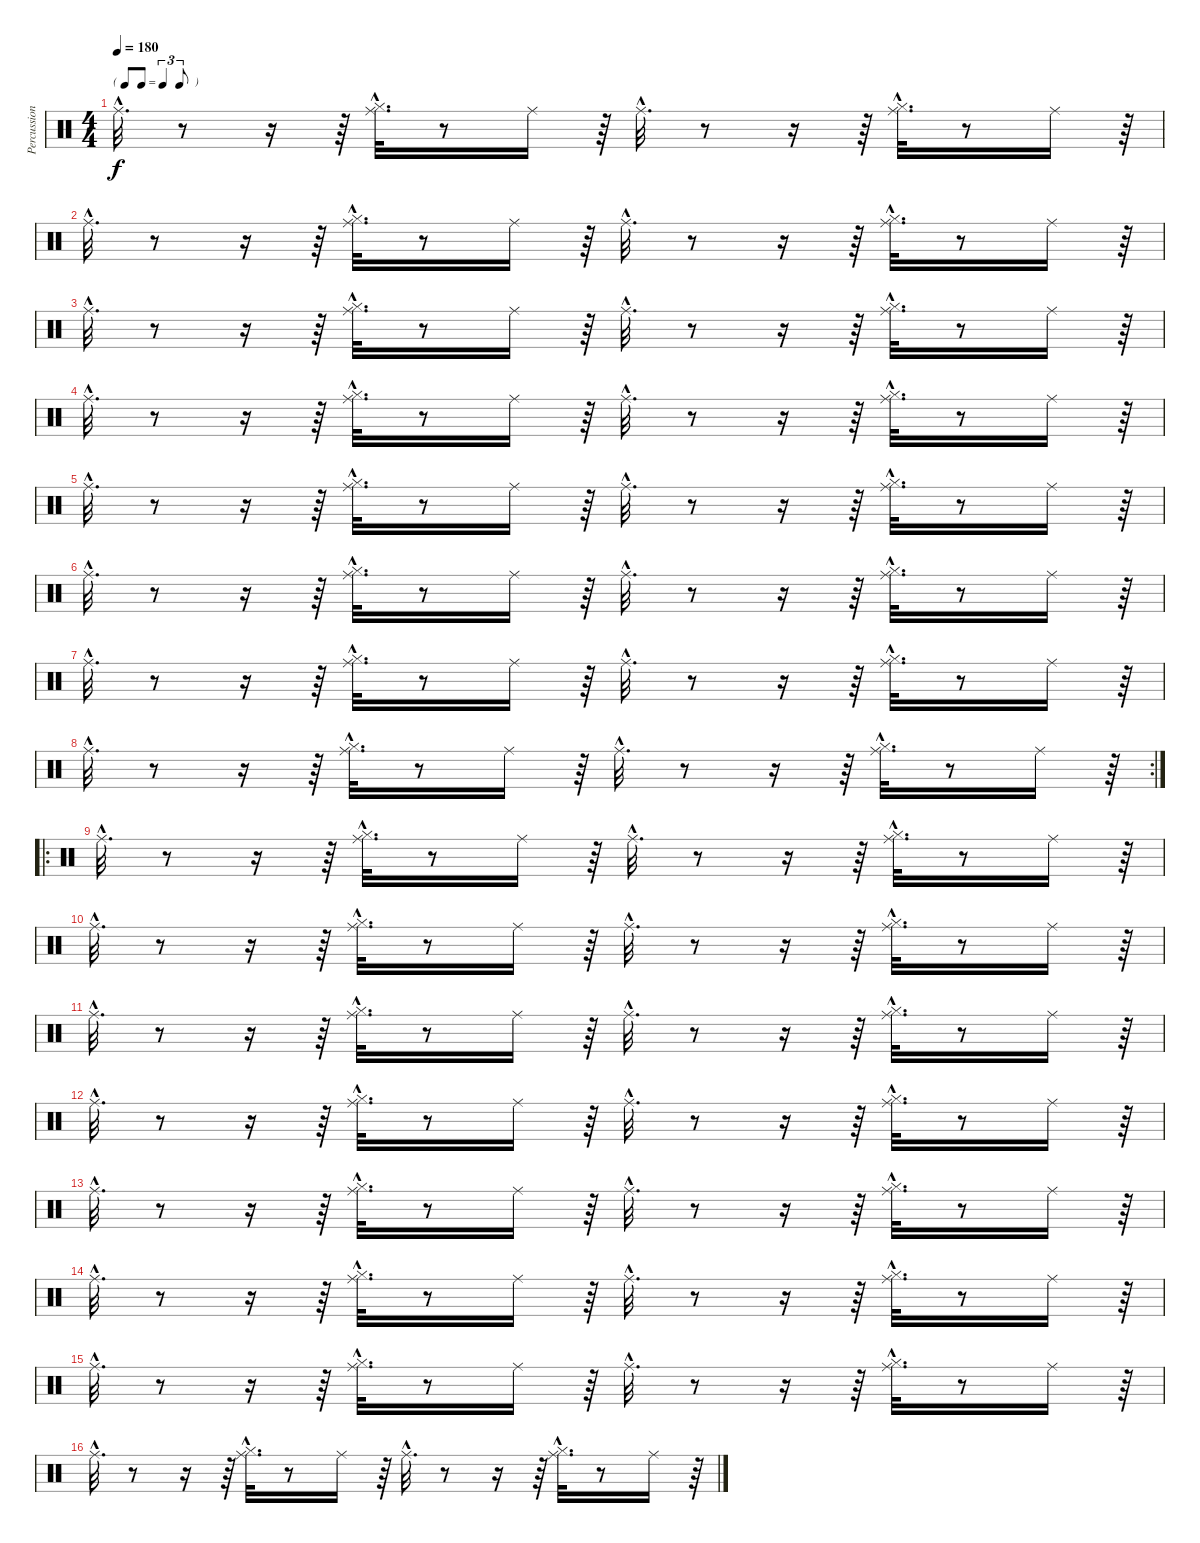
\track ("Percussions" "Percussion") {instrument percussion}
\staff {score}
\articulation defaults
\ts (4 4)
\tf triplet8th
\tempo 180
\clef neutral
\ks c "Ride (middle)"{hac}.32{d dy f}
r.8 r.16 r.64 ("Hi-Hat (closed)"{hac} "Ride (middle)"{hac}).32{d} r.8 "Ride (middle)".16 r.64 "Ride (middle)"{hac}.32{d} r.8 r.16 r.64 ("Hi-Hat (closed)"{hac} "Ride (middle)"{hac}).32{d} r.8 "Ride (middle)".16 r.64 |
"Ride (middle)"{hac}.32{d} r.8 r.16 r.64 ("Hi-Hat (closed)"{hac} "Ride (middle)"{hac}).32{d} r.8 "Ride (middle)".16 r.64 "Ride (middle)"{hac}.32{d} r.8 r.16 r.64 ("Hi-Hat (closed)"{hac} "Ride (middle)"{hac}).32{d} r.8 "Ride (middle)".16 r.64 |
"Ride (middle)"{hac}.32{d} r.8 r.16 r.64 ("Hi-Hat (closed)"{hac} "Ride (middle)"{hac}).32{d} r.8 "Ride (middle)".16 r.64 "Ride (middle)"{hac}.32{d} r.8 r.16 r.64 ("Hi-Hat (closed)"{hac} "Ride (middle)"{hac}).32{d} r.8 "Ride (middle)".16 r.64 |
"Ride (middle)"{hac}.32{d} r.8 r.16 r.64 ("Hi-Hat (closed)"{hac} "Ride (middle)"{hac}).32{d} r.8 "Ride (middle)".16 r.64 "Ride (middle)"{hac}.32{d} r.8 r.16 r.64 ("Hi-Hat (closed)"{hac} "Ride (middle)"{hac}).32{d} r.8 "Ride (middle)".16 r.64 |
"Ride (middle)"{hac}.32{d} r.8 r.16 r.64 ("Hi-Hat (closed)"{hac} "Ride (middle)"{hac}).32{d} r.8 "Ride (middle)".16 r.64 "Ride (middle)"{hac}.32{d} r.8 r.16 r.64 ("Hi-Hat (closed)"{hac} "Ride (middle)"{hac}).32{d} r.8 "Ride (middle)".16 r.64 |
"Ride (middle)"{hac}.32{d} r.8 r.16 r.64 ("Hi-Hat (closed)"{hac} "Ride (middle)"{hac}).32{d} r.8 "Ride (middle)".16 r.64 "Ride (middle)"{hac}.32{d} r.8 r.16 r.64 ("Hi-Hat (closed)"{hac} "Ride (middle)"{hac}).32{d} r.8 "Ride (middle)".16 r.64 |
"Ride (middle)"{hac}.32{d} r.8 r.16 r.64 ("Hi-Hat (closed)"{hac} "Ride (middle)"{hac}).32{d} r.8 "Ride (middle)".16 r.64 "Ride (middle)"{hac}.32{d} r.8 r.16 r.64 ("Hi-Hat (closed)"{hac} "Ride (middle)"{hac}).32{d} r.8 "Ride (middle)".16 r.64 |
\rc 2 "Ride (middle)"{hac}.32{d}
r.8 r.16 r.64 ("Hi-Hat (closed)"{hac} "Ride (middle)"{hac}).32{d} r.8 "Ride (middle)".16 r.64 "Ride (middle)"{hac}.32{d} r.8 r.16 r.64 ("Hi-Hat (closed)"{hac} "Ride (middle)"{hac}).32{d} r.8 "Ride (middle)".16 r.64 |
\ro "Ride (middle)"{hac}.32{d}
r.8 r.16 r.64 ("Hi-Hat (closed)"{hac} "Ride (middle)"{hac}).32{d} r.8 "Ride (middle)".16 r.64 "Ride (middle)"{hac}.32{d} r.8 r.16 r.64 ("Hi-Hat (closed)"{hac} "Ride (middle)"{hac}).32{d} r.8 "Ride (middle)".16 r.64 |
"Ride (middle)"{hac}.32{d} r.8 r.16 r.64 ("Hi-Hat (closed)"{hac} "Ride (middle)"{hac}).32{d} r.8 "Ride (middle)".16 r.64 "Ride (middle)"{hac}.32{d} r.8 r.16 r.64 ("Hi-Hat (closed)"{hac} "Ride (middle)"{hac}).32{d} r.8 "Ride (middle)".16 r.64 |
"Ride (middle)"{hac}.32{d} r.8 r.16 r.64 ("Hi-Hat (closed)"{hac} "Ride (middle)"{hac}).32{d} r.8 "Ride (middle)".16 r.64 "Ride (middle)"{hac}.32{d} r.8 r.16 r.64 ("Hi-Hat (closed)"{hac} "Ride (middle)"{hac}).32{d} r.8 "Ride (middle)".16 r.64 |
"Ride (middle)"{hac}.32{d} r.8 r.16 r.64 ("Hi-Hat (closed)"{hac} "Ride (middle)"{hac}).32{d} r.8 "Ride (middle)".16 r.64 "Ride (middle)"{hac}.32{d} r.8 r.16 r.64 ("Hi-Hat (closed)"{hac} "Ride (middle)"{hac}).32{d} r.8 "Ride (middle)".16 r.64 |
"Ride (middle)"{hac}.32{d} r.8 r.16 r.64 ("Hi-Hat (closed)"{hac} "Ride (middle)"{hac}).32{d} r.8 "Ride (middle)".16 r.64 "Ride (middle)"{hac}.32{d} r.8 r.16 r.64 ("Hi-Hat (closed)"{hac} "Ride (middle)"{hac}).32{d} r.8 "Ride (middle)".16 r.64 |
"Ride (middle)"{hac}.32{d} r.8 r.16 r.64 ("Hi-Hat (closed)"{hac} "Ride (middle)"{hac}).32{d} r.8 "Ride (middle)".16 r.64 "Ride (middle)"{hac}.32{d} r.8 r.16 r.64 ("Hi-Hat (closed)"{hac} "Ride (middle)"{hac}).32{d} r.8 "Ride (middle)".16 r.64 |
"Ride (middle)"{hac}.32{d} r.8 r.16 r.64 ("Hi-Hat (closed)"{hac} "Ride (middle)"{hac}).32{d} r.8 "Ride (middle)".16 r.64 "Ride (middle)"{hac}.32{d} r.8 r.16 r.64 ("Hi-Hat (closed)"{hac} "Ride (middle)"{hac}).32{d} r.8 "Ride (middle)".16 r.64 |
"Ride (middle)"{hac}.32{d} r.8 r.16 r.64 ("Hi-Hat (closed)"{hac} "Ride (middle)"{hac}).32{d} r.8 "Ride (middle)".16 r.64 "Ride (middle)"{hac}.32{d} r.8 r.16 r.64 ("Hi-Hat (closed)"{hac} "Ride (middle)"{hac}).32{d} r.8 "Ride (middle)".16 r.64
